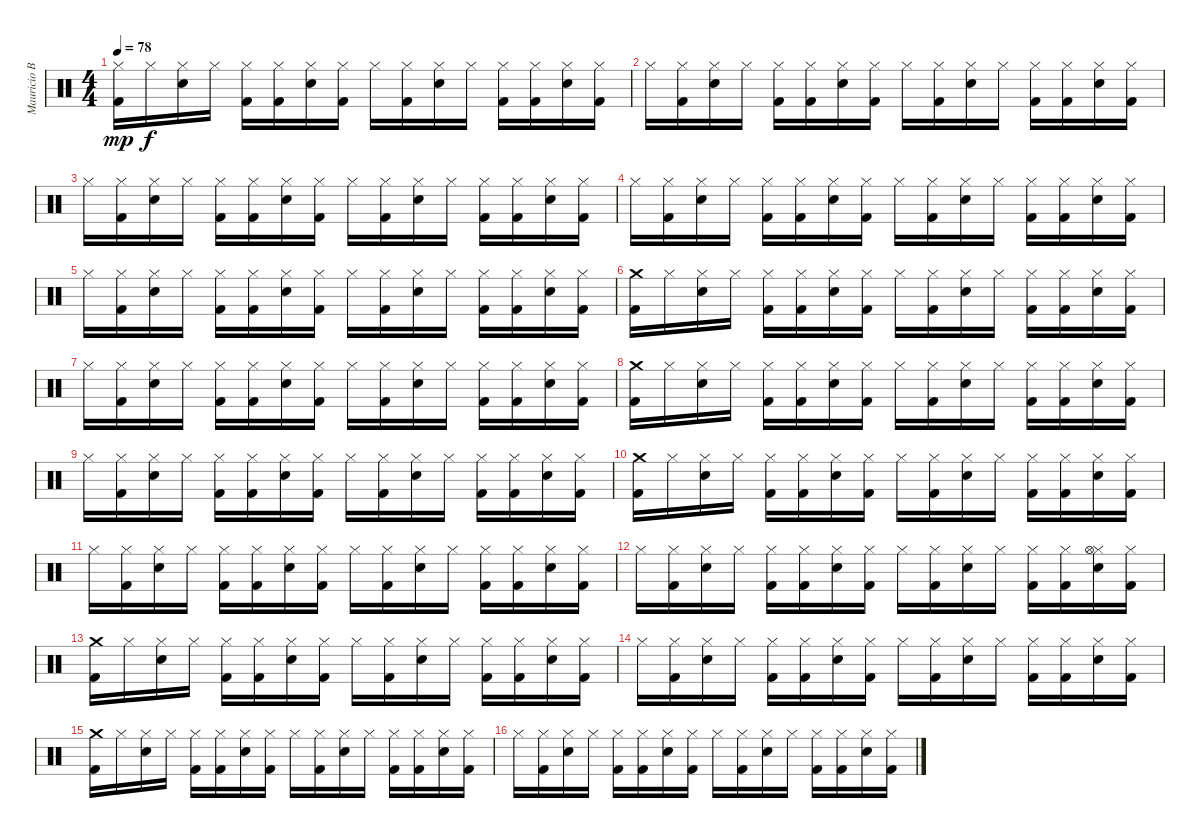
\track ("Mauricio Basualto" "Mauricio B") {instrument percussion}
\staff {score}
\articulation defaults
\ts (4 4)
\tempo 78
\clef neutral
\ks c
("Hi-Hat (closed)" "Kick (hit) 2").16{dy mp} "Hi-Hat (closed)".16{dy f} ("Hi-Hat (closed)" "Snare (hit) 2").16 "Hi-Hat (closed)".16 ("Hi-Hat (closed)" "Kick (hit) 2").16 ("Hi-Hat (closed)" "Kick (hit) 2").16 ("Hi-Hat (closed)" "Snare (hit) 2").16 ("Hi-Hat (closed)" "Kick (hit) 2").16 "Hi-Hat (closed)".16 ("Hi-Hat (closed)" "Kick (hit) 2").16 ("Hi-Hat (closed)" "Snare (hit) 2").16 "Hi-Hat (closed)".16 ("Hi-Hat (closed)" "Kick (hit) 2").16 ("Hi-Hat (closed)" "Kick (hit) 2").16 ("Hi-Hat (closed)" "Snare (hit) 2").16 ("Hi-Hat (closed)" "Kick (hit) 2").16 |
"Hi-Hat (closed)".16 ("Hi-Hat (closed)" "Kick (hit) 2").16 ("Hi-Hat (closed)" "Snare (hit) 2").16 "Hi-Hat (closed)".16 ("Hi-Hat (closed)" "Kick (hit) 2").16 ("Hi-Hat (closed)" "Kick (hit) 2").16 ("Hi-Hat (closed)" "Snare (hit) 2").16 ("Hi-Hat (closed)" "Kick (hit) 2").16 "Hi-Hat (closed)".16 ("Hi-Hat (closed)" "Kick (hit) 2").16 ("Hi-Hat (closed)" "Snare (hit) 2").16 "Hi-Hat (closed)".16 ("Hi-Hat (closed)" "Kick (hit) 2").16 ("Hi-Hat (closed)" "Kick (hit) 2").16 ("Hi-Hat (closed)" "Snare (hit) 2").16 ("Hi-Hat (closed)" "Kick (hit) 2").16 |
"Hi-Hat (closed)".16 ("Hi-Hat (closed)" "Kick (hit) 2").16 ("Hi-Hat (closed)" "Snare (hit) 2").16 "Hi-Hat (closed)".16 ("Hi-Hat (closed)" "Kick (hit) 2").16 ("Hi-Hat (closed)" "Kick (hit) 2").16 ("Hi-Hat (closed)" "Snare (hit) 2").16 ("Hi-Hat (closed)" "Kick (hit) 2").16 "Hi-Hat (closed)".16 ("Hi-Hat (closed)" "Kick (hit) 2").16 ("Hi-Hat (closed)" "Snare (hit) 2").16 "Hi-Hat (closed)".16 ("Hi-Hat (closed)" "Kick (hit) 2").16 ("Hi-Hat (closed)" "Kick (hit) 2").16 ("Hi-Hat (closed)" "Snare (hit) 2").16 ("Hi-Hat (closed)" "Kick (hit) 2").16 |
"Hi-Hat (closed)".16 ("Hi-Hat (closed)" "Kick (hit) 2").16 ("Hi-Hat (closed)" "Snare (hit) 2").16 "Hi-Hat (closed)".16 ("Hi-Hat (closed)" "Kick (hit) 2").16 ("Hi-Hat (closed)" "Kick (hit) 2").16 ("Hi-Hat (closed)" "Snare (hit) 2").16 ("Hi-Hat (closed)" "Kick (hit) 2").16 "Hi-Hat (closed)".16 ("Hi-Hat (closed)" "Kick (hit) 2").16 ("Hi-Hat (closed)" "Snare (hit) 2").16 "Hi-Hat (closed)".16 ("Hi-Hat (closed)" "Kick (hit) 2").16 ("Hi-Hat (closed)" "Kick (hit) 2").16 ("Hi-Hat (closed)" "Snare (hit) 2").16 ("Hi-Hat (closed)" "Kick (hit) 2").16 |
"Hi-Hat (closed)".16 ("Hi-Hat (closed)" "Kick (hit) 2").16 ("Hi-Hat (closed)" "Snare (hit) 2").16 "Hi-Hat (closed)".16 ("Hi-Hat (closed)" "Kick (hit) 2").16 ("Hi-Hat (closed)" "Kick (hit) 2").16 ("Hi-Hat (closed)" "Snare (hit) 2").16 ("Hi-Hat (closed)" "Kick (hit) 2").16 "Hi-Hat (closed)".16 ("Hi-Hat (closed)" "Kick (hit) 2").16 ("Hi-Hat (closed)" "Snare (hit) 2").16 "Hi-Hat (closed)".16 ("Hi-Hat (closed)" "Kick (hit) 2").16 ("Hi-Hat (closed)" "Kick (hit) 2").16 ("Hi-Hat (closed)" "Snare (hit) 2").16 ("Hi-Hat (closed)" "Kick (hit) 2").16 |
("Crash medium (hit)" "Kick (hit) 2").16 "Hi-Hat (closed)".16 ("Hi-Hat (closed)" "Snare (hit) 2").16 "Hi-Hat (closed)".16 ("Hi-Hat (closed)" "Kick (hit) 2").16 ("Hi-Hat (closed)" "Kick (hit) 2").16 ("Hi-Hat (closed)" "Snare (hit) 2").16 ("Hi-Hat (closed)" "Kick (hit) 2").16 "Hi-Hat (closed)".16 ("Hi-Hat (closed)" "Kick (hit) 2").16 ("Hi-Hat (closed)" "Snare (hit) 2").16 "Hi-Hat (closed)".16 ("Hi-Hat (closed)" "Kick (hit) 2").16 ("Hi-Hat (closed)" "Kick (hit) 2").16 ("Hi-Hat (closed)" "Snare (hit) 2").16 ("Hi-Hat (closed)" "Kick (hit) 2").16 |
"Hi-Hat (closed)".16 ("Hi-Hat (closed)" "Kick (hit) 2").16 ("Hi-Hat (closed)" "Snare (hit) 2").16 "Hi-Hat (closed)".16 ("Hi-Hat (closed)" "Kick (hit) 2").16 ("Hi-Hat (closed)" "Kick (hit) 2").16 ("Hi-Hat (closed)" "Snare (hit) 2").16 ("Hi-Hat (closed)" "Kick (hit) 2").16 "Hi-Hat (closed)".16 ("Hi-Hat (closed)" "Kick (hit) 2").16 ("Hi-Hat (closed)" "Snare (hit) 2").16 "Hi-Hat (closed)".16 ("Hi-Hat (closed)" "Kick (hit) 2").16 ("Hi-Hat (closed)" "Kick (hit) 2").16 ("Hi-Hat (closed)" "Snare (hit) 2").16 ("Hi-Hat (closed)" "Kick (hit) 2").16 |
("Crash medium (hit)" "Kick (hit) 2").16 "Hi-Hat (closed)".16 ("Hi-Hat (closed)" "Snare (hit) 2").16 "Hi-Hat (closed)".16 ("Hi-Hat (closed)" "Kick (hit) 2").16 ("Hi-Hat (closed)" "Kick (hit) 2").16 ("Hi-Hat (closed)" "Snare (hit) 2").16 ("Hi-Hat (closed)" "Kick (hit) 2").16 "Hi-Hat (closed)".16 ("Hi-Hat (closed)" "Kick (hit) 2").16 ("Hi-Hat (closed)" "Snare (hit) 2").16 "Hi-Hat (closed)".16 ("Hi-Hat (closed)" "Kick (hit) 2").16 ("Hi-Hat (closed)" "Kick (hit) 2").16 ("Hi-Hat (closed)" "Snare (hit) 2").16 ("Hi-Hat (closed)" "Kick (hit) 2").16 |
"Hi-Hat (closed)".16 ("Hi-Hat (closed)" "Kick (hit) 2").16 ("Hi-Hat (closed)" "Snare (hit) 2").16 "Hi-Hat (closed)".16 ("Hi-Hat (closed)" "Kick (hit) 2").16 ("Hi-Hat (closed)" "Kick (hit) 2").16 ("Hi-Hat (closed)" "Snare (hit) 2").16 ("Hi-Hat (closed)" "Kick (hit) 2").16 "Hi-Hat (closed)".16 ("Hi-Hat (closed)" "Kick (hit) 2").16 ("Hi-Hat (closed)" "Snare (hit) 2").16 "Hi-Hat (closed)".16 ("Hi-Hat (closed)" "Kick (hit) 2").16 ("Hi-Hat (closed)" "Kick (hit) 2").16 ("Hi-Hat (closed)" "Snare (hit) 2").16 ("Hi-Hat (closed)" "Kick (hit) 2").16 |
("Crash medium (hit)" "Kick (hit) 2").16 "Hi-Hat (closed)".16 ("Hi-Hat (closed)" "Snare (hit) 2").16 "Hi-Hat (closed)".16 ("Hi-Hat (closed)" "Kick (hit) 2").16 ("Hi-Hat (closed)" "Kick (hit) 2").16 ("Hi-Hat (closed)" "Snare (hit) 2").16 ("Hi-Hat (closed)" "Kick (hit) 2").16 "Hi-Hat (closed)".16 ("Hi-Hat (closed)" "Kick (hit) 2").16 ("Hi-Hat (closed)" "Snare (hit) 2").16 "Hi-Hat (closed)".16 ("Hi-Hat (closed)" "Kick (hit) 2").16 ("Hi-Hat (closed)" "Kick (hit) 2").16 ("Hi-Hat (closed)" "Snare (hit) 2").16 ("Hi-Hat (closed)" "Kick (hit) 2").16 |
"Hi-Hat (closed)".16 ("Hi-Hat (closed)" "Kick (hit) 2").16 ("Hi-Hat (closed)" "Snare (hit) 2").16 "Hi-Hat (closed)".16 ("Hi-Hat (closed)" "Kick (hit) 2").16 ("Hi-Hat (closed)" "Kick (hit) 2").16 ("Hi-Hat (closed)" "Snare (hit) 2").16 ("Hi-Hat (closed)" "Kick (hit) 2").16 "Hi-Hat (closed)".16 ("Hi-Hat (closed)" "Kick (hit) 2").16 ("Hi-Hat (closed)" "Snare (hit) 2").16 "Hi-Hat (closed)".16 ("Hi-Hat (closed)" "Kick (hit) 2").16 ("Hi-Hat (closed)" "Kick (hit) 2").16 ("Hi-Hat (closed)" "Snare (hit) 2").16 ("Hi-Hat (closed)" "Kick (hit) 2").16 |
"Hi-Hat (closed)".16 ("Hi-Hat (closed)" "Kick (hit) 2").16 ("Hi-Hat (closed)" "Snare (hit) 2").16 "Hi-Hat (closed)".16 ("Hi-Hat (closed)" "Kick (hit) 2").16 ("Hi-Hat (closed)" "Kick (hit) 2").16 ("Hi-Hat (closed)" "Snare (hit) 2").16 ("Hi-Hat (closed)" "Kick (hit) 2").16 "Hi-Hat (closed)".16 ("Hi-Hat (closed)" "Kick (hit) 2").16 ("Hi-Hat (closed)" "Snare (hit) 2").16 "Hi-Hat (closed)".16 ("Hi-Hat (closed)" "Kick (hit) 2").16 ("Hi-Hat (closed)" "Kick (hit) 2").16 ("Hi-Hat (closed)" "Hi-Hat (open)" "Snare (hit) 2").16 ("Hi-Hat (closed)" "Kick (hit) 2").16 |
("Crash medium (hit)" "Kick (hit) 2").16 "Hi-Hat (closed)".16 ("Hi-Hat (closed)" "Snare (hit) 2").16 "Hi-Hat (closed)".16 ("Hi-Hat (closed)" "Kick (hit) 2").16 ("Hi-Hat (closed)" "Kick (hit) 2").16 ("Hi-Hat (closed)" "Snare (hit) 2").16 ("Hi-Hat (closed)" "Kick (hit) 2").16 "Hi-Hat (closed)".16 ("Hi-Hat (closed)" "Kick (hit) 2").16 ("Hi-Hat (closed)" "Snare (hit) 2").16 "Hi-Hat (closed)".16 ("Hi-Hat (closed)" "Kick (hit) 2").16 ("Hi-Hat (closed)" "Kick (hit) 2").16 ("Hi-Hat (closed)" "Snare (hit) 2").16 ("Hi-Hat (closed)" "Kick (hit) 2").16 |
"Hi-Hat (closed)".16 ("Hi-Hat (closed)" "Kick (hit) 2").16 ("Hi-Hat (closed)" "Snare (hit) 2").16 "Hi-Hat (closed)".16 ("Hi-Hat (closed)" "Kick (hit) 2").16 ("Hi-Hat (closed)" "Kick (hit) 2").16 ("Hi-Hat (closed)" "Snare (hit) 2").16 ("Hi-Hat (closed)" "Kick (hit) 2").16 "Hi-Hat (closed)".16 ("Hi-Hat (closed)" "Kick (hit) 2").16 ("Hi-Hat (closed)" "Snare (hit) 2").16 "Hi-Hat (closed)".16 ("Hi-Hat (closed)" "Kick (hit) 2").16 ("Hi-Hat (closed)" "Kick (hit) 2").16 ("Hi-Hat (closed)" "Snare (hit) 2").16 ("Hi-Hat (closed)" "Kick (hit) 2").16 |
("Crash medium (hit)" "Kick (hit) 2").16 "Hi-Hat (closed)".16 ("Hi-Hat (closed)" "Snare (hit) 2").16 "Hi-Hat (closed)".16 ("Hi-Hat (closed)" "Kick (hit) 2").16 ("Hi-Hat (closed)" "Kick (hit) 2").16 ("Hi-Hat (closed)" "Snare (hit) 2").16 ("Hi-Hat (closed)" "Kick (hit) 2").16 "Hi-Hat (closed)".16 ("Hi-Hat (closed)" "Kick (hit) 2").16 ("Hi-Hat (closed)" "Snare (hit) 2").16 "Hi-Hat (closed)".16 ("Hi-Hat (closed)" "Kick (hit) 2").16 ("Hi-Hat (closed)" "Kick (hit) 2").16 ("Hi-Hat (closed)" "Snare (hit) 2").16 ("Hi-Hat (closed)" "Kick (hit) 2").16 |
"Hi-Hat (closed)".16 ("Hi-Hat (closed)" "Kick (hit) 2").16 ("Hi-Hat (closed)" "Snare (hit) 2").16 "Hi-Hat (closed)".16 ("Hi-Hat (closed)" "Kick (hit) 2").16 ("Hi-Hat (closed)" "Kick (hit) 2").16 ("Hi-Hat (closed)" "Snare (hit) 2").16 ("Hi-Hat (closed)" "Kick (hit) 2").16 "Hi-Hat (closed)".16 ("Hi-Hat (closed)" "Kick (hit) 2").16 ("Hi-Hat (closed)" "Snare (hit) 2").16 "Hi-Hat (closed)".16 ("Hi-Hat (closed)" "Kick (hit) 2").16 ("Hi-Hat (closed)" "Kick (hit) 2").16 ("Hi-Hat (closed)" "Snare (hit) 2").16 ("Hi-Hat (closed)" "Kick (hit) 2").16
